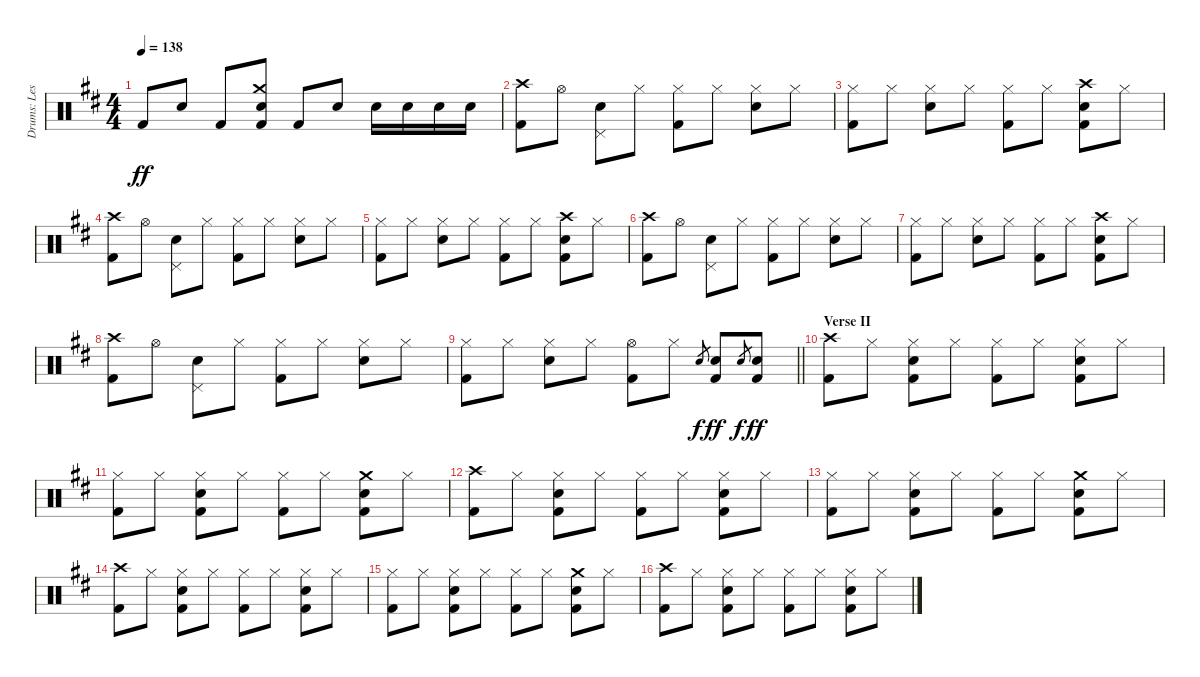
\track ("Drums: Les" "Drums: Les") {instrument percussion}
\staff {score}
\articulation defaults
\ts (4 4)
\tempo 138
\clef neutral
\ks d "Kick (hit) 2".8{dy ff} "Electric Snare (hit)".8 "Kick (hit) 2".8
("Crash medium (hit)" "Snare (hit) 2" "Kick (hit) 2").8 "Kick (hit) 2".8 "Snare (hit) 2".8 "Snare (hit) 2".16 "Snare (hit) 2".16 "Snare (hit) 2".16 "Snare (hit) 2".16 |
("Crash high (hit)" "Kick (hit) 2").8 "Hi-Hat (open)".8 ("Pedal Hi-Hat (hit)" "Snare (hit) 2").8 "Hi-Hat (closed)".8 ("Hi-Hat (closed)" "Kick (hit) 2").8 "Hi-Hat (closed)".8 ("Hi-Hat (closed)" "Snare (hit) 2").8 "Hi-Hat (closed)".8 |
("Hi-Hat (closed)" "Kick (hit) 2").8 "Hi-Hat (closed)".8 ("Hi-Hat (closed)" "Snare (hit) 2").8 "Hi-Hat (closed)".8 ("Hi-Hat (closed)" "Kick (hit) 2").8 "Hi-Hat (closed)".8 ("Crash high (hit)" "Snare (hit) 2" "Kick (hit) 2").8 "Hi-Hat (closed)".8 |
("Crash high (hit)" "Kick (hit) 2").8 "Hi-Hat (open)".8 ("Pedal Hi-Hat (hit)" "Snare (hit) 2").8 "Hi-Hat (closed)".8 ("Hi-Hat (closed)" "Kick (hit) 2").8 "Hi-Hat (closed)".8 ("Hi-Hat (closed)" "Snare (hit) 2").8 "Hi-Hat (closed)".8 |
("Hi-Hat (closed)" "Kick (hit) 2").8 "Hi-Hat (closed)".8 ("Hi-Hat (closed)" "Snare (hit) 2").8 "Hi-Hat (closed)".8 ("Hi-Hat (closed)" "Kick (hit) 2").8 "Hi-Hat (closed)".8 ("Crash high (hit)" "Snare (hit) 2" "Kick (hit) 2").8 "Hi-Hat (closed)".8 |
("Crash high (hit)" "Kick (hit) 2").8 "Hi-Hat (open)".8 ("Pedal Hi-Hat (hit)" "Snare (hit) 2").8 "Hi-Hat (closed)".8 ("Hi-Hat (closed)" "Kick (hit) 2").8 "Hi-Hat (closed)".8 ("Hi-Hat (closed)" "Snare (hit) 2").8 "Hi-Hat (closed)".8 |
("Hi-Hat (closed)" "Kick (hit) 2").8 "Hi-Hat (closed)".8 ("Hi-Hat (closed)" "Snare (hit) 2").8 "Hi-Hat (closed)".8 ("Hi-Hat (closed)" "Kick (hit) 2").8 "Hi-Hat (closed)".8 ("Crash high (hit)" "Snare (hit) 2" "Kick (hit) 2").8 "Hi-Hat (closed)".8 |
("Crash high (hit)" "Kick (hit) 2").8 "Hi-Hat (open)".8 ("Pedal Hi-Hat (hit)" "Snare (hit) 2").8 "Hi-Hat (closed)".8 ("Hi-Hat (closed)" "Kick (hit) 2").8 "Hi-Hat (closed)".8 ("Hi-Hat (closed)" "Snare (hit) 2").8 "Hi-Hat (closed)".8 |
\barLineRight lightlight
("Hi-Hat (closed)" "Kick (hit) 2").8 "Hi-Hat (closed)".8 ("Hi-Hat (closed)" "Snare (hit) 2").8 "Hi-Hat (closed)".8 ("Hi-Hat (open)" "Kick (hit) 2").8 "Hi-Hat (closed)".8 "Snare (hit) 2".8{gr dy f} ("Snare (hit) 2" "Kick (hit) 2").8{dy ff} "Snare (hit) 2".8{gr dy f} ("Snare (hit) 2" "Kick (hit) 2").8{dy ff} |
\section ("" "Verse II")
("Crash high (hit)" "Kick (hit) 2").8 "Hi-Hat (closed)".8 ("Hi-Hat (closed)" "Snare (hit) 2" "Kick (hit) 2").8 "Hi-Hat (closed)".8 ("Hi-Hat (closed)" "Kick (hit) 2").8 "Hi-Hat (closed)".8 ("Hi-Hat (closed)" "Snare (hit) 2" "Kick (hit) 2").8 "Hi-Hat (closed)".8 |
("Hi-Hat (closed)" "Kick (hit) 2").8 "Hi-Hat (closed)".8 ("Hi-Hat (closed)" "Snare (hit) 2" "Kick (hit) 2").8 "Hi-Hat (closed)".8 ("Hi-Hat (closed)" "Kick (hit) 2").8 "Hi-Hat (closed)".8 ("Crash medium (hit)" "Snare (hit) 2" "Kick (hit) 2").8 "Hi-Hat (closed)".8 |
("Crash high (hit)" "Kick (hit) 2").8 "Hi-Hat (closed)".8 ("Hi-Hat (closed)" "Snare (hit) 2" "Kick (hit) 2").8 "Hi-Hat (closed)".8 ("Hi-Hat (closed)" "Kick (hit) 2").8 "Hi-Hat (closed)".8 ("Hi-Hat (closed)" "Snare (hit) 2" "Kick (hit) 2").8 "Hi-Hat (closed)".8 |
("Hi-Hat (closed)" "Kick (hit) 2").8 "Hi-Hat (closed)".8 ("Hi-Hat (closed)" "Snare (hit) 2" "Kick (hit) 2").8 "Hi-Hat (closed)".8 ("Hi-Hat (closed)" "Kick (hit) 2").8 "Hi-Hat (closed)".8 ("Crash medium (hit)" "Snare (hit) 2" "Kick (hit) 2").8 "Hi-Hat (closed)".8 |
("Crash high (hit)" "Kick (hit) 2").8 "Hi-Hat (closed)".8 ("Hi-Hat (closed)" "Snare (hit) 2" "Kick (hit) 2").8 "Hi-Hat (closed)".8 ("Hi-Hat (closed)" "Kick (hit) 2").8 "Hi-Hat (closed)".8 ("Hi-Hat (closed)" "Snare (hit) 2" "Kick (hit) 2").8 "Hi-Hat (closed)".8 |
("Hi-Hat (closed)" "Kick (hit) 2").8 "Hi-Hat (closed)".8 ("Hi-Hat (closed)" "Snare (hit) 2" "Kick (hit) 2").8 "Hi-Hat (closed)".8 ("Hi-Hat (closed)" "Kick (hit) 2").8 "Hi-Hat (closed)".8 ("Crash medium (hit)" "Snare (hit) 2" "Kick (hit) 2").8 "Hi-Hat (closed)".8 |
("Crash high (hit)" "Kick (hit) 2").8 "Hi-Hat (closed)".8 ("Hi-Hat (closed)" "Snare (hit) 2" "Kick (hit) 2").8 "Hi-Hat (closed)".8 ("Hi-Hat (closed)" "Kick (hit) 2").8 "Hi-Hat (closed)".8 ("Hi-Hat (closed)" "Snare (hit) 2" "Kick (hit) 2").8 "Hi-Hat (closed)".8
